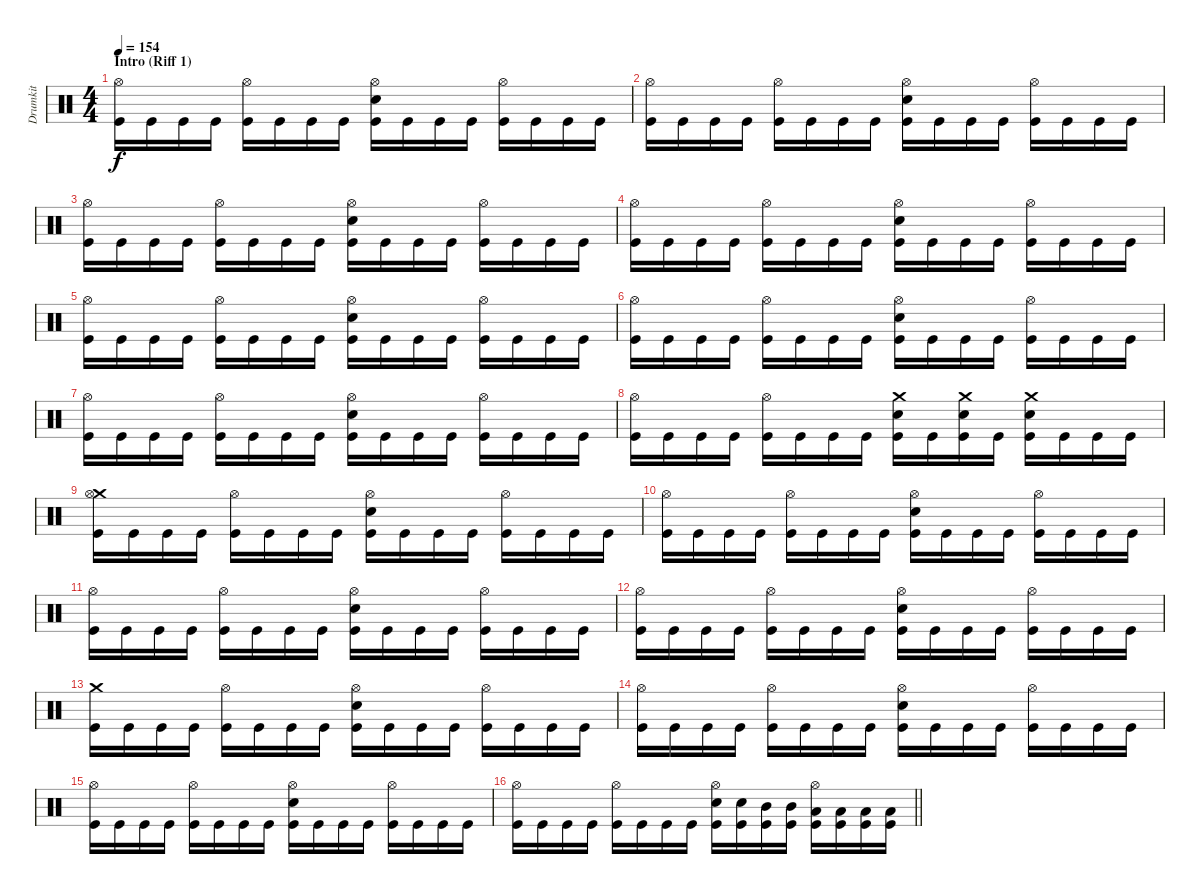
\track ("Drumkit" "Drumkit") {mute instrument percussion}
\staff {score}
\articulation defaults
\ts (4 4)
\section ("" "Intro (Riff 1)")
\tempo 154
\clef neutral
\ks c
("Hi-Hat (open)" "Kick (hit)").16{dy f} "Kick (hit)".16 "Kick (hit)".16 "Kick (hit)".16 ("Hi-Hat (open)" "Kick (hit)").16 "Kick (hit)".16 "Kick (hit)".16 "Kick (hit)".16 ("Hi-Hat (open)" "Snare (hit) 2" "Kick (hit)").16 "Kick (hit)".16 "Kick (hit)".16 "Kick (hit)".16 ("Hi-Hat (open)" "Kick (hit)").16 "Kick (hit)".16 "Kick (hit)".16 "Kick (hit)".16 |
("Hi-Hat (open)" "Kick (hit)").16 "Kick (hit)".16 "Kick (hit)".16 "Kick (hit)".16 ("Hi-Hat (open)" "Kick (hit)").16 "Kick (hit)".16 "Kick (hit)".16 "Kick (hit)".16 ("Hi-Hat (open)" "Snare (hit) 2" "Kick (hit)").16 "Kick (hit)".16 "Kick (hit)".16 "Kick (hit)".16 ("Hi-Hat (open)" "Kick (hit)").16 "Kick (hit)".16 "Kick (hit)".16 "Kick (hit)".16 |
("Hi-Hat (open)" "Kick (hit)").16 "Kick (hit)".16 "Kick (hit)".16 "Kick (hit)".16 ("Hi-Hat (open)" "Kick (hit)").16 "Kick (hit)".16 "Kick (hit)".16 "Kick (hit)".16 ("Hi-Hat (open)" "Snare (hit) 2" "Kick (hit)").16 "Kick (hit)".16 "Kick (hit)".16 "Kick (hit)".16 ("Hi-Hat (open)" "Kick (hit)").16 "Kick (hit)".16 "Kick (hit)".16 "Kick (hit)".16 |
("Hi-Hat (open)" "Kick (hit)").16 "Kick (hit)".16 "Kick (hit)".16 "Kick (hit)".16 ("Hi-Hat (open)" "Kick (hit)").16 "Kick (hit)".16 "Kick (hit)".16 "Kick (hit)".16 ("Hi-Hat (open)" "Snare (hit) 2" "Kick (hit)").16 "Kick (hit)".16 "Kick (hit)".16 "Kick (hit)".16 ("Hi-Hat (open)" "Kick (hit)").16 "Kick (hit)".16 "Kick (hit)".16 "Kick (hit)".16 |
("Hi-Hat (open)" "Kick (hit)").16 "Kick (hit)".16 "Kick (hit)".16 "Kick (hit)".16 ("Hi-Hat (open)" "Kick (hit)").16 "Kick (hit)".16 "Kick (hit)".16 "Kick (hit)".16 ("Hi-Hat (open)" "Snare (hit) 2" "Kick (hit)").16 "Kick (hit)".16 "Kick (hit)".16 "Kick (hit)".16 ("Hi-Hat (open)" "Kick (hit)").16 "Kick (hit)".16 "Kick (hit)".16 "Kick (hit)".16 |
("Hi-Hat (open)" "Kick (hit)").16 "Kick (hit)".16 "Kick (hit)".16 "Kick (hit)".16 ("Hi-Hat (open)" "Kick (hit)").16 "Kick (hit)".16 "Kick (hit)".16 "Kick (hit)".16 ("Hi-Hat (open)" "Snare (hit) 2" "Kick (hit)").16 "Kick (hit)".16 "Kick (hit)".16 "Kick (hit)".16 ("Hi-Hat (open)" "Kick (hit)").16 "Kick (hit)".16 "Kick (hit)".16 "Kick (hit)".16 |
("Hi-Hat (open)" "Kick (hit)").16 "Kick (hit)".16 "Kick (hit)".16 "Kick (hit)".16 ("Hi-Hat (open)" "Kick (hit)").16 "Kick (hit)".16 "Kick (hit)".16 "Kick (hit)".16 ("Hi-Hat (open)" "Snare (hit) 2" "Kick (hit)").16 "Kick (hit)".16 "Kick (hit)".16 "Kick (hit)".16 ("Hi-Hat (open)" "Kick (hit)").16 "Kick (hit)".16 "Kick (hit)".16 "Kick (hit)".16 |
("Hi-Hat (open)" "Kick (hit)").16 "Kick (hit)".16 "Kick (hit)".16 "Kick (hit)".16 ("Hi-Hat (open)" "Kick (hit)").16 "Kick (hit)".16 "Kick (hit)".16 "Kick (hit)".16 ("Crash medium (hit)" "Snare (hit) 2" "Kick (hit)").16 "Kick (hit)".16 ("Crash medium (hit)" "Snare (hit) 2" "Kick (hit)").16 "Kick (hit)".16 ("Crash medium (hit)" "Snare (hit) 2" "Kick (hit)").16 "Kick (hit)".16 "Kick (hit)".16 "Kick (hit)".16 |
("Crash medium (hit)" "Hi-Hat (open)" "Kick (hit)").16 "Kick (hit)".16 "Kick (hit)".16 "Kick (hit)".16 ("Hi-Hat (open)" "Kick (hit)").16 "Kick (hit)".16 "Kick (hit)".16 "Kick (hit)".16 ("Hi-Hat (open)" "Snare (hit) 2" "Kick (hit)").16 "Kick (hit)".16 "Kick (hit)".16 "Kick (hit)".16 ("Hi-Hat (open)" "Kick (hit)").16 "Kick (hit)".16 "Kick (hit)".16 "Kick (hit)".16 |
("Hi-Hat (open)" "Kick (hit)").16 "Kick (hit)".16 "Kick (hit)".16 "Kick (hit)".16 ("Hi-Hat (open)" "Kick (hit)").16 "Kick (hit)".16 "Kick (hit)".16 "Kick (hit)".16 ("Hi-Hat (open)" "Snare (hit) 2" "Kick (hit)").16 "Kick (hit)".16 "Kick (hit)".16 "Kick (hit)".16 ("Hi-Hat (open)" "Kick (hit)").16 "Kick (hit)".16 "Kick (hit)".16 "Kick (hit)".16 |
("Hi-Hat (open)" "Kick (hit)").16 "Kick (hit)".16 "Kick (hit)".16 "Kick (hit)".16 ("Hi-Hat (open)" "Kick (hit)").16 "Kick (hit)".16 "Kick (hit)".16 "Kick (hit)".16 ("Hi-Hat (open)" "Snare (hit) 2" "Kick (hit)").16 "Kick (hit)".16 "Kick (hit)".16 "Kick (hit)".16 ("Hi-Hat (open)" "Kick (hit)").16 "Kick (hit)".16 "Kick (hit)".16 "Kick (hit)".16 |
("Hi-Hat (open)" "Kick (hit)").16 "Kick (hit)".16 "Kick (hit)".16 "Kick (hit)".16 ("Hi-Hat (open)" "Kick (hit)").16 "Kick (hit)".16 "Kick (hit)".16 "Kick (hit)".16 ("Hi-Hat (open)" "Snare (hit) 2" "Kick (hit)").16 "Kick (hit)".16 "Kick (hit)".16 "Kick (hit)".16 ("Hi-Hat (open)" "Kick (hit)").16 "Kick (hit)".16 "Kick (hit)".16 "Kick (hit)".16 |
("Crash medium (hit)" "Kick (hit)").16 "Kick (hit)".16 "Kick (hit)".16 "Kick (hit)".16 ("Hi-Hat (open)" "Kick (hit)").16 "Kick (hit)".16 "Kick (hit)".16 "Kick (hit)".16 ("Hi-Hat (open)" "Snare (hit) 2" "Kick (hit)").16 "Kick (hit)".16 "Kick (hit)".16 "Kick (hit)".16 ("Hi-Hat (open)" "Kick (hit)").16 "Kick (hit)".16 "Kick (hit)".16 "Kick (hit)".16 |
("Hi-Hat (open)" "Kick (hit)").16 "Kick (hit)".16 "Kick (hit)".16 "Kick (hit)".16 ("Hi-Hat (open)" "Kick (hit)").16 "Kick (hit)".16 "Kick (hit)".16 "Kick (hit)".16 ("Hi-Hat (open)" "Snare (hit) 2" "Kick (hit)").16 "Kick (hit)".16 "Kick (hit)".16 "Kick (hit)".16 ("Hi-Hat (open)" "Kick (hit)").16 "Kick (hit)".16 "Kick (hit)".16 "Kick (hit)".16 |
("Hi-Hat (open)" "Kick (hit)").16 "Kick (hit)".16 "Kick (hit)".16 "Kick (hit)".16 ("Hi-Hat (open)" "Kick (hit)").16 "Kick (hit)".16 "Kick (hit)".16 "Kick (hit)".16 ("Hi-Hat (open)" "Snare (hit) 2" "Kick (hit)").16 "Kick (hit)".16 "Kick (hit)".16 "Kick (hit)".16 ("Hi-Hat (open)" "Kick (hit)").16 "Kick (hit)".16 "Kick (hit)".16 "Kick (hit)".16 |
\barLineRight lightlight
("Hi-Hat (open)" "Kick (hit)").16 "Kick (hit)".16 "Kick (hit)".16 "Kick (hit)".16 ("Hi-Hat (open)" "Kick (hit)").16 "Kick (hit)".16 "Kick (hit)".16 "Kick (hit)".16 ("Hi-Hat (open)" "Snare (hit) 2" "Kick (hit)").16 ("Snare (hit) 2" "Kick (hit)").16 ("Mid Tom (hit)" "Kick (hit)").16 ("Mid Tom (hit)" "Kick (hit)").16 ("Hi-Hat (open)" "Low Tom (hit)" "Kick (hit)").16 ("Low Tom (hit)" "Kick (hit)").16 ("Low Floor Tom (hit)" "Kick (hit)").16 ("Low Floor Tom (hit)" "Kick (hit)").16
